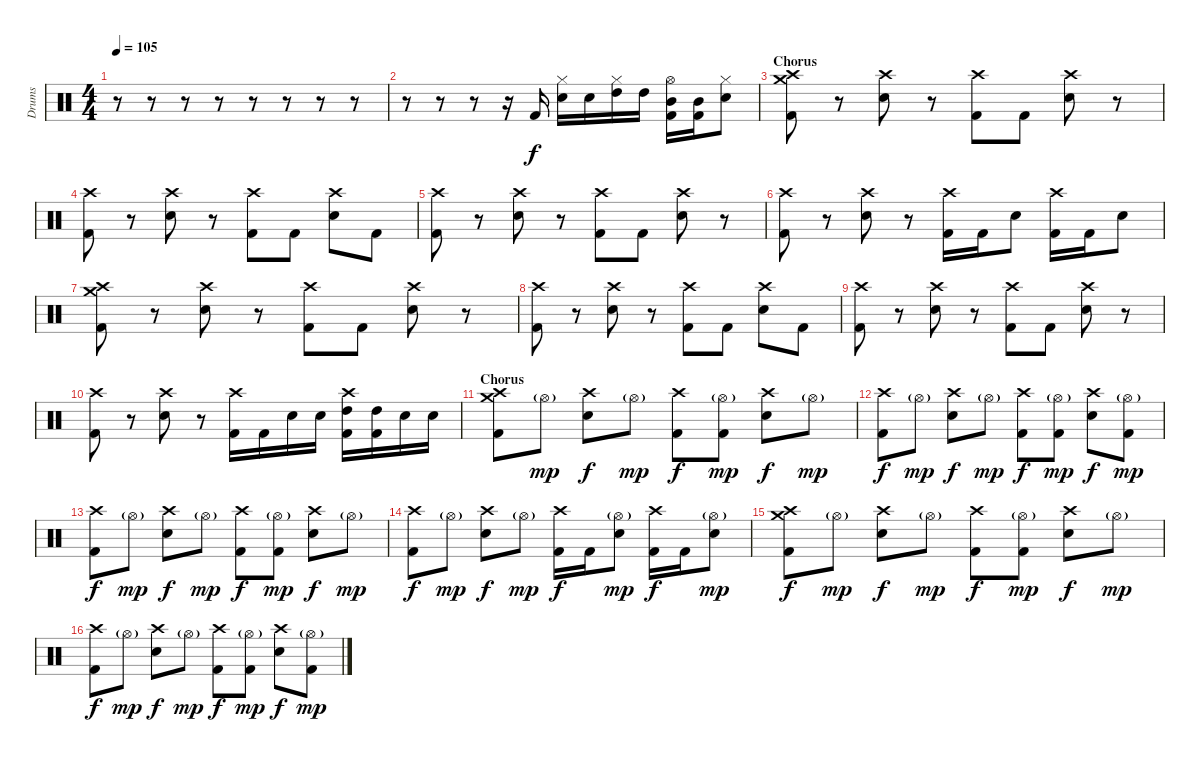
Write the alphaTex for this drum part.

\track ("Drums" "Drums") {instrument percussion}
\staff {score}
\articulation defaults
\ts (4 4)
\tempo 105
\clef neutral
\ks c
r.8{dy mf} r.8 r.8 r.8 r.8 r.8 r.8 r.8 |
r.8 r.8 r.8 r.16 "Kick (hit) 2".16{dy f} ("Hi-Hat (closed)" "Electric Snare (hit)").16 "Electric Snare (hit)".16 ("Hi-Hat (closed)" "High Tom (hit)").16 "High Tom (hit)".16 ("Hi-Hat (open)" "Mid Tom (hit)" "Kick (hit) 2").16 ("Mid Tom (hit)" "Kick (hit) 2").16 ("Hi-Hat (closed)" "Electric Snare (hit)").8 |
\section ("" "Chorus")
("Crash medium (hit)" "Crash high (hit)" "Kick (hit) 2").8 r.8 ("Crash high (hit)" "Electric Snare (hit)").8 r.8 ("Crash high (hit)" "Kick (hit) 2").8 "Kick (hit) 2".8 ("Crash high (hit)" "Electric Snare (hit)").8 r.8 |
("Crash high (hit)" "Kick (hit) 2").8 r.8 ("Crash high (hit)" "Electric Snare (hit)").8 r.8 ("Crash high (hit)" "Kick (hit) 2").8 "Kick (hit) 2".8 ("Crash high (hit)" "Electric Snare (hit)").8 "Kick (hit) 2".8 |
("Crash high (hit)" "Kick (hit) 2").8 r.8 ("Crash high (hit)" "Electric Snare (hit)").8 r.8 ("Crash high (hit)" "Kick (hit) 2").8 "Kick (hit) 2".8 ("Crash high (hit)" "Electric Snare (hit)").8 r.8 |
("Crash high (hit)" "Kick (hit) 2").8 r.8 ("Crash high (hit)" "Electric Snare (hit)").8 r.8 ("Crash high (hit)" "Kick (hit) 2").16 "Kick (hit) 2".16 "Electric Snare (hit)".8 ("Crash high (hit)" "Kick (hit) 2").16 "Kick (hit) 2".16 "Electric Snare (hit)".8 |
("Crash medium (hit)" "Crash high (hit)" "Kick (hit) 2").8 r.8 ("Crash high (hit)" "Electric Snare (hit)").8 r.8 ("Crash high (hit)" "Kick (hit) 2").8 "Kick (hit) 2".8 ("Crash high (hit)" "Electric Snare (hit)").8 r.8 |
("Crash high (hit)" "Kick (hit) 2").8 r.8 ("Crash high (hit)" "Electric Snare (hit)").8 r.8 ("Crash high (hit)" "Kick (hit) 2").8 "Kick (hit) 2".8 ("Crash high (hit)" "Electric Snare (hit)").8 "Kick (hit) 2".8 |
("Crash high (hit)" "Kick (hit) 2").8 r.8 ("Crash high (hit)" "Electric Snare (hit)").8 r.8 ("Crash high (hit)" "Kick (hit) 2").8 "Kick (hit) 2".8 ("Crash high (hit)" "Electric Snare (hit)").8 r.8 |
("Crash high (hit)" "Kick (hit) 2").8 r.8 ("Crash high (hit)" "Electric Snare (hit)").8 r.8 ("Crash high (hit)" "Kick (hit) 2").16 "Kick (hit) 2".16 "Electric Snare (hit)".16 "Electric Snare (hit)".16 ("Crash high (hit)" "High Tom (hit)" "Kick (hit) 2").16 ("High Tom (hit)" "Kick (hit) 2").16 "Electric Snare (hit)".16 "Electric Snare (hit)".16 |
\section ("" "Chorus")
("Crash medium (hit)" "Crash high (hit)" "Kick (hit) 2").8 "Hi-Hat (open)"{g}.8{dy mp} ("Crash high (hit)" "Electric Snare (hit)").8{dy f} "Hi-Hat (open)"{g}.8{dy mp} ("Crash high (hit)" "Kick (hit) 2").8{dy f} ("Hi-Hat (open)"{g} "Kick (hit) 2").8{dy mp} ("Crash high (hit)" "Electric Snare (hit)").8{dy f} "Hi-Hat (open)"{g}.8{dy mp} |
("Crash high (hit)" "Kick (hit) 2").8{dy f} "Hi-Hat (open)"{g}.8{dy mp} ("Crash high (hit)" "Electric Snare (hit)").8{dy f} "Hi-Hat (open)"{g}.8{dy mp} ("Crash high (hit)" "Kick (hit) 2").8{dy f} ("Hi-Hat (open)"{g} "Kick (hit) 2").8{dy mp} ("Crash high (hit)" "Electric Snare (hit)").8{dy f} ("Hi-Hat (open)"{g} "Kick (hit) 2").8{dy mp} |
("Crash high (hit)" "Kick (hit) 2").8{dy f} "Hi-Hat (open)"{g}.8{dy mp} ("Crash high (hit)" "Electric Snare (hit)").8{dy f} "Hi-Hat (open)"{g}.8{dy mp} ("Crash high (hit)" "Kick (hit) 2").8{dy f} ("Hi-Hat (open)"{g} "Kick (hit) 2").8{dy mp} ("Crash high (hit)" "Electric Snare (hit)").8{dy f} "Hi-Hat (open)"{g}.8{dy mp} |
("Crash high (hit)" "Kick (hit) 2").8{dy f} "Hi-Hat (open)"{g}.8{dy mp} ("Crash high (hit)" "Electric Snare (hit)").8{dy f} "Hi-Hat (open)"{g}.8{dy mp} ("Crash high (hit)" "Kick (hit) 2").16{dy f} "Kick (hit) 2".16 ("Hi-Hat (open)"{g} "Electric Snare (hit)").8{dy mp} ("Crash high (hit)" "Kick (hit) 2").16{dy f} "Kick (hit) 2".16 ("Hi-Hat (open)"{g} "Electric Snare (hit)").8{dy mp} |
("Crash medium (hit)" "Crash high (hit)" "Kick (hit) 2").8{dy f} "Hi-Hat (open)"{g}.8{dy mp} ("Crash high (hit)" "Electric Snare (hit)").8{dy f} "Hi-Hat (open)"{g}.8{dy mp} ("Crash high (hit)" "Kick (hit) 2").8{dy f} ("Hi-Hat (open)"{g} "Kick (hit) 2").8{dy mp} ("Crash high (hit)" "Electric Snare (hit)").8{dy f} "Hi-Hat (open)"{g}.8{dy mp} |
("Crash high (hit)" "Kick (hit) 2").8{dy f} "Hi-Hat (open)"{g}.8{dy mp} ("Crash high (hit)" "Electric Snare (hit)").8{dy f} "Hi-Hat (open)"{g}.8{dy mp} ("Crash high (hit)" "Kick (hit) 2").8{dy f} ("Hi-Hat (open)"{g} "Kick (hit) 2").8{dy mp} ("Crash high (hit)" "Electric Snare (hit)").8{dy f} ("Hi-Hat (open)"{g} "Kick (hit) 2").8{dy mp}
